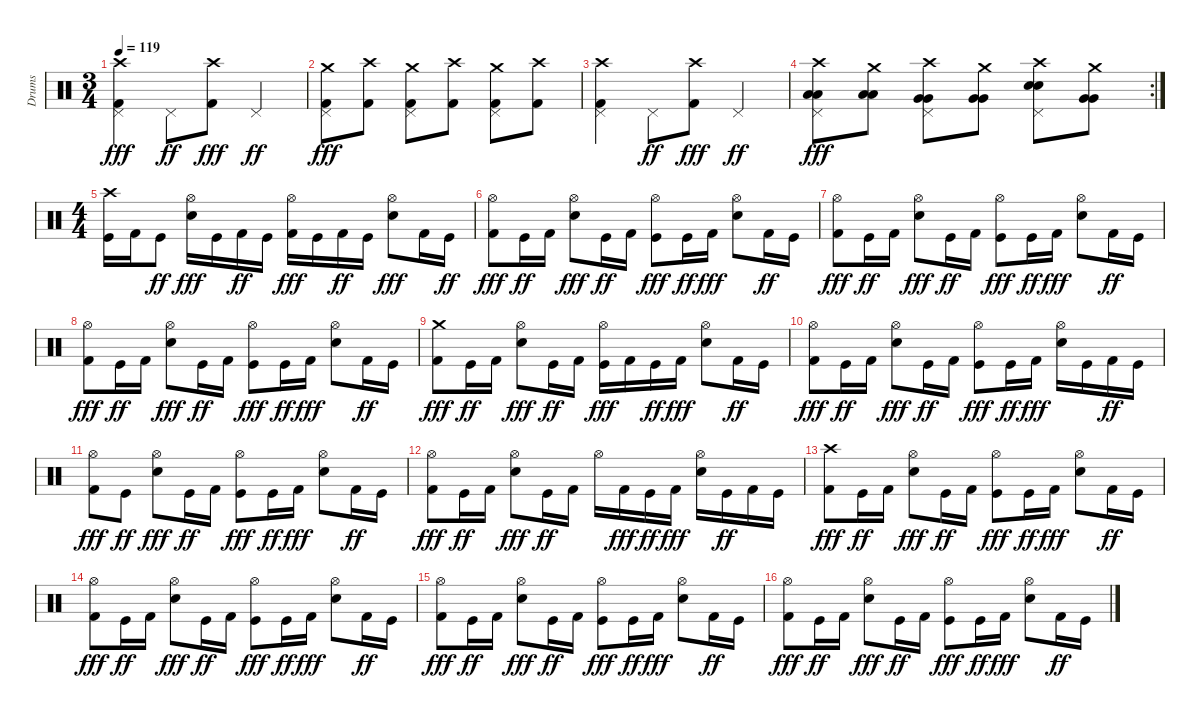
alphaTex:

\track ("Drums" "Drums") {instrument percussion}
\staff {score}
\articulation defaults
\ts (3 4)
\tempo 119
\clef neutral
\ks c
("Pedal Hi-Hat (hit)" "Kick (hit) 2" "Crash high (hit)").4{dy fff} "Pedal Hi-Hat (hit)".8{dy ff} ("Kick (hit) 2" "Crash high (hit)").8{dy fff} "Pedal Hi-Hat (hit)".4{dy ff} |
("Pedal Hi-Hat (hit)" "Kick (hit) 2" "Crash medium (hit)").8{dy fff} ("Kick (hit) 2" "Crash high (hit)").8 ("Pedal Hi-Hat (hit)" "Kick (hit) 2" "Crash medium (hit)").8 ("Kick (hit) 2" "Crash high (hit)").8 ("Pedal Hi-Hat (hit)" "Kick (hit) 2" "Crash medium (hit)").8 ("Kick (hit) 2" "Crash high (hit)").8 |
("Pedal Hi-Hat (hit)" "Kick (hit) 2" "Crash high (hit)").4 "Pedal Hi-Hat (hit)".8{dy ff} ("Kick (hit) 2" "Crash high (hit)").8{dy fff} "Pedal Hi-Hat (hit)".4{dy ff} |
\rc 2
("Pedal Hi-Hat (hit)" "Low Tom (hit)" "Crash high (hit)" "Low Tom (hit)").8{dy fff} ("Low Tom (hit)" "Crash medium (hit)" "Low Tom (hit)").8 ("Pedal Hi-Hat (hit)" "Very Low Tom (hit)" "Crash high (hit)" "Very Low Tom (hit)").8 ("Very Low Tom (hit)" "Crash medium (hit)" "Very Low Tom (hit)").8 ("Pedal Hi-Hat (hit)" "Snare (hit) 2" "Crash high (hit)" "Snare (hit) 2").8 ("Very Low Tom (hit)" "Crash medium (hit)" "Very Low Tom (hit)").8 |
\ts (4 4)
("Kick (hit)" "Crash high (hit)").16 "Kick (hit) 2".16 "Kick (hit)".8{dy ff} ("Hi-Hat (open)" "Snare (hit) 2").16{dy fff} "Kick (hit)".16 "Kick (hit) 2".16{dy ff} "Kick (hit)".16 ("Hi-Hat (open)" "Kick (hit) 2").16{dy fff} "Kick (hit)".16 "Kick (hit) 2".16{dy ff} "Kick (hit)".16 ("Hi-Hat (open)" "Electric Snare (hit)").8{dy fff} "Kick (hit) 2".16 "Kick (hit)".16{dy ff} |
("Hi-Hat (open)" "Kick (hit) 2").8{dy fff} "Kick (hit)".16{dy ff} "Kick (hit) 2".16 ("Hi-Hat (open)" "Snare (hit) 2").8{dy fff} "Kick (hit)".16{dy ff} "Kick (hit) 2".16 ("Hi-Hat (open)" "Kick (hit)").8{dy fff} "Kick (hit)".16{dy ff} "Kick (hit) 2".16{dy fff} ("Hi-Hat (open)" "Snare (hit) 2").8 "Kick (hit) 2".16{dy ff} "Kick (hit)".16 |
("Hi-Hat (open)" "Kick (hit) 2").8{dy fff} "Kick (hit)".16{dy ff} "Kick (hit) 2".16 ("Hi-Hat (open)" "Snare (hit) 2").8{dy fff} "Kick (hit)".16{dy ff} "Kick (hit) 2".16 ("Hi-Hat (open)" "Kick (hit)").8{dy fff} "Kick (hit)".16{dy ff} "Kick (hit) 2".16{dy fff} ("Hi-Hat (open)" "Snare (hit) 2").8 "Kick (hit) 2".16{dy ff} "Kick (hit)".16 |
("Hi-Hat (open)" "Kick (hit) 2").8{dy fff} "Kick (hit)".16{dy ff} "Kick (hit) 2".16 ("Hi-Hat (open)" "Snare (hit) 2").8{dy fff} "Kick (hit)".16{dy ff} "Kick (hit) 2".16 ("Hi-Hat (open)" "Kick (hit)").8{dy fff} "Kick (hit)".16{dy ff} "Kick (hit) 2".16{dy fff} ("Hi-Hat (open)" "Snare (hit) 2").8 "Kick (hit) 2".16{dy ff} "Kick (hit)".16 |
("Kick (hit) 2" "Crash medium (hit)").8{dy fff} "Kick (hit)".16{dy ff} "Kick (hit) 2".16 ("Hi-Hat (open)" "Snare (hit) 2").8{dy fff} "Kick (hit)".16{dy ff} "Kick (hit) 2".16 ("Hi-Hat (open)" "Kick (hit)").16{dy fff} "Kick (hit) 2".16 "Kick (hit)".16{dy ff} "Kick (hit) 2".16{dy fff} ("Hi-Hat (open)" "Snare (hit) 2").8 "Kick (hit) 2".16{dy ff} "Kick (hit)".16 |
("Hi-Hat (open)" "Kick (hit) 2").8{dy fff} "Kick (hit)".16{dy ff} "Kick (hit) 2".16 ("Hi-Hat (open)" "Snare (hit) 2").8{dy fff} "Kick (hit)".16{dy ff} "Kick (hit) 2".16 ("Hi-Hat (open)" "Kick (hit)").8{dy fff} "Kick (hit)".16{dy ff} "Kick (hit) 2".16{dy fff} ("Hi-Hat (open)" "Snare (hit) 2").16 "Kick (hit)".16 "Kick (hit) 2".16{dy ff} "Kick (hit)".16 |
("Hi-Hat (open)" "Kick (hit) 2").8{dy fff} "Kick (hit)".8{dy ff} ("Hi-Hat (open)" "Snare (hit) 2").8{dy fff} "Kick (hit)".16{dy ff} "Kick (hit) 2".16 ("Hi-Hat (open)" "Kick (hit)").8{dy fff} "Kick (hit)".16{dy ff} "Kick (hit) 2".16{dy fff} ("Hi-Hat (open)" "Snare (hit) 2").8 "Kick (hit) 2".16{dy ff} "Kick (hit)".16 |
("Hi-Hat (open)" "Kick (hit) 2").8{dy fff} "Kick (hit)".16{dy ff} "Kick (hit) 2".16 ("Hi-Hat (open)" "Snare (hit) 2").8{dy fff} "Kick (hit)".16{dy ff} "Kick (hit) 2".16 "Hi-Hat (open)".16 "Kick (hit) 2".16{dy fff} "Kick (hit)".16{dy ff} "Kick (hit) 2".16{dy fff} ("Hi-Hat (open)" "Snare (hit) 2").16 "Kick (hit)".16{dy ff} "Kick (hit) 2".16 "Kick (hit)".16 |
("Kick (hit) 2" "Crash high (hit)").8{dy fff} "Kick (hit)".16{dy ff} "Kick (hit) 2".16 ("Hi-Hat (open)" "Snare (hit) 2").8{dy fff} "Kick (hit)".16{dy ff} "Kick (hit) 2".16 ("Hi-Hat (open)" "Kick (hit)").8{dy fff} "Kick (hit)".16{dy ff} "Kick (hit) 2".16{dy fff} ("Hi-Hat (open)" "Snare (hit) 2").8 "Kick (hit) 2".16{dy ff} "Kick (hit)".16 |
("Hi-Hat (open)" "Kick (hit) 2").8{dy fff} "Kick (hit)".16{dy ff} "Kick (hit) 2".16 ("Hi-Hat (open)" "Snare (hit) 2").8{dy fff} "Kick (hit)".16{dy ff} "Kick (hit) 2".16 ("Hi-Hat (open)" "Kick (hit)").8{dy fff} "Kick (hit)".16{dy ff} "Kick (hit) 2".16{dy fff} ("Hi-Hat (open)" "Snare (hit) 2").8 "Kick (hit) 2".16{dy ff} "Kick (hit)".16 |
("Hi-Hat (open)" "Kick (hit) 2").8{dy fff} "Kick (hit)".16{dy ff} "Kick (hit) 2".16 ("Hi-Hat (open)" "Snare (hit) 2").8{dy fff} "Kick (hit)".16{dy ff} "Kick (hit) 2".16 ("Hi-Hat (open)" "Kick (hit)").8{dy fff} "Kick (hit)".16{dy ff} "Kick (hit) 2".16{dy fff} ("Hi-Hat (open)" "Snare (hit) 2").8 "Kick (hit) 2".16{dy ff} "Kick (hit)".16 |
("Hi-Hat (open)" "Kick (hit) 2").8{dy fff} "Kick (hit)".16{dy ff} "Kick (hit) 2".16 ("Hi-Hat (open)" "Snare (hit) 2").8{dy fff} "Kick (hit)".16{dy ff} "Kick (hit) 2".16 ("Hi-Hat (open)" "Kick (hit)").8{dy fff} "Kick (hit)".16{dy ff} "Kick (hit) 2".16{dy fff} ("Hi-Hat (open)" "Snare (hit) 2").8 "Kick (hit) 2".16{dy ff} "Kick (hit)".16
